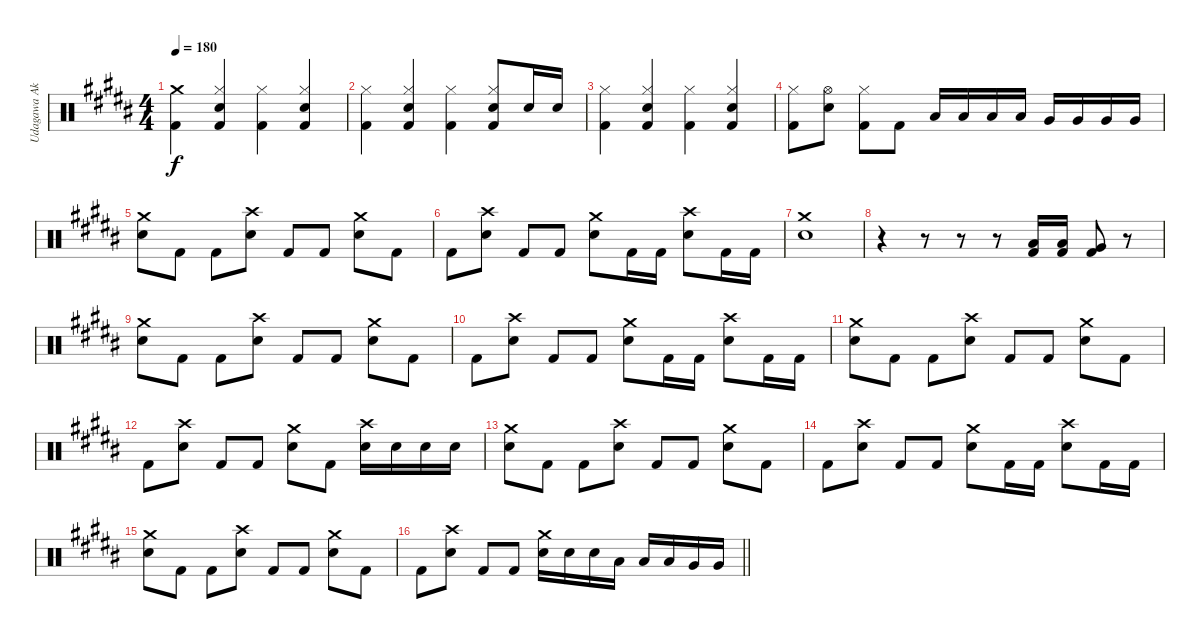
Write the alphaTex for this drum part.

\track ("Udagawa Ako" "Udagawa Ak") {instrument percussion}
\staff {score}
\articulation defaults
\ts (4 4)
\tempo 180
\clef neutral
\ks b
("Crash medium (hit)" "Kick (hit) 2").4{dy f} ("Hi-Hat (closed)" "Electric Snare (hit)" "Kick (hit) 2").4 ("Hi-Hat (closed)" "Kick (hit) 2").4 ("Hi-Hat (closed)" "Electric Snare (hit)" "Kick (hit) 2").4 |
("Hi-Hat (closed)" "Kick (hit) 2").4 ("Hi-Hat (closed)" "Electric Snare (hit)" "Kick (hit) 2").4 ("Hi-Hat (closed)" "Kick (hit) 2").4 ("Hi-Hat (closed)" "Electric Snare (hit)" "Kick (hit) 2").8 "Electric Snare (hit)".16 "Electric Snare (hit)".16 |
("Hi-Hat (closed)" "Kick (hit) 2").4 ("Hi-Hat (closed)" "Electric Snare (hit)" "Kick (hit) 2").4 ("Hi-Hat (closed)" "Kick (hit) 2").4 ("Hi-Hat (closed)" "Electric Snare (hit)" "Kick (hit) 2").4 |
("Hi-Hat (closed)" "Kick (hit) 2").8 ("Hi-Hat (open)" "Electric Snare (hit)").8 ("Hi-Hat (closed)" "Kick (hit) 2").8 "Kick (hit) 2".8 "Low Tom (hit)".16 "Low Tom (hit)".16 "Low Tom (hit)".16 "Low Tom (hit)".16 "Very Low Tom (hit)".16 "Very Low Tom (hit)".16 "Very Low Tom (hit)".16 "Very Low Tom (hit)".16 |
("Crash medium (hit)" "Electric Snare (hit)").8 "Kick (hit) 2".8 "Kick (hit) 2".8 ("Crash high (hit)" "Electric Snare (hit)").8 "Kick (hit) 2".8 "Kick (hit) 2".8 ("Crash medium (hit)" "Electric Snare (hit)").8 "Kick (hit) 2".8 |
"Kick (hit) 2".8 ("Crash high (hit)" "Electric Snare (hit)").8 "Kick (hit) 2".8 "Kick (hit) 2".8 ("Crash medium (hit)" "Electric Snare (hit)").8 "Kick (hit) 2".16 "Kick (hit) 2".16 ("Crash high (hit)" "Electric Snare (hit)").8 "Kick (hit) 2".16 "Kick (hit) 2".16 |
("Crash medium (hit)" "Electric Snare (hit)").1 |
r.4 r.8 r.8 r.8 ("Low Tom (hit)" "Kick (hit) 2").16 ("Low Tom (hit)" "Kick (hit) 2").16 ("Very Low Tom (hit)" "Kick (hit) 2").8 r.8 |
("Crash medium (hit)" "Electric Snare (hit)").8 "Kick (hit) 2".8 "Kick (hit) 2".8 ("Crash high (hit)" "Electric Snare (hit)").8 "Kick (hit) 2".8 "Kick (hit) 2".8 ("Crash medium (hit)" "Electric Snare (hit)").8 "Kick (hit) 2".8 |
"Kick (hit) 2".8 ("Crash high (hit)" "Electric Snare (hit)").8 "Kick (hit) 2".8 "Kick (hit) 2".8 ("Crash medium (hit)" "Electric Snare (hit)").8 "Kick (hit) 2".16 "Kick (hit) 2".16 ("Crash high (hit)" "Electric Snare (hit)").8 "Kick (hit) 2".16 "Kick (hit) 2".16 |
("Crash medium (hit)" "Electric Snare (hit)").8 "Kick (hit) 2".8 "Kick (hit) 2".8 ("Crash high (hit)" "Electric Snare (hit)").8 "Kick (hit) 2".8 "Kick (hit) 2".8 ("Crash medium (hit)" "Electric Snare (hit)").8 "Kick (hit) 2".8 |
"Kick (hit) 2".8 ("Crash high (hit)" "Electric Snare (hit)").8 "Kick (hit) 2".8 "Kick (hit) 2".8 ("Crash medium (hit)" "Electric Snare (hit)").8 "Kick (hit) 2".8 ("Crash high (hit)" "Electric Snare (hit)").16 "Electric Snare (hit)".16 "Electric Snare (hit)".16 "Electric Snare (hit)".16 |
("Crash medium (hit)" "Electric Snare (hit)").8 "Kick (hit) 2".8 "Kick (hit) 2".8 ("Crash high (hit)" "Electric Snare (hit)").8 "Kick (hit) 2".8 "Kick (hit) 2".8 ("Crash medium (hit)" "Electric Snare (hit)").8 "Kick (hit) 2".8 |
"Kick (hit) 2".8 ("Crash high (hit)" "Electric Snare (hit)").8 "Kick (hit) 2".8 "Kick (hit) 2".8 ("Crash medium (hit)" "Electric Snare (hit)").8 "Kick (hit) 2".16 "Kick (hit) 2".16 ("Crash high (hit)" "Electric Snare (hit)").8 "Kick (hit) 2".16 "Kick (hit) 2".16 |
("Crash medium (hit)" "Electric Snare (hit)").8 "Kick (hit) 2".8 "Kick (hit) 2".8 ("Crash high (hit)" "Electric Snare (hit)").8 "Kick (hit) 2".8 "Kick (hit) 2".8 ("Crash medium (hit)" "Electric Snare (hit)").8 "Kick (hit) 2".8 |
\barLineRight lightlight "Kick (hit) 2".8
("Crash high (hit)" "Electric Snare (hit)").8 "Kick (hit) 2".8 "Kick (hit) 2".8 ("Crash medium (hit)" "Electric Snare (hit)").16 "Electric Snare (hit)".16 "Electric Snare (hit)".16 "Low Tom (hit)".16 "Low Tom (hit)".16 "Low Tom (hit)".16 "Very Low Tom (hit)".16 "Very Low Tom (hit)".16
